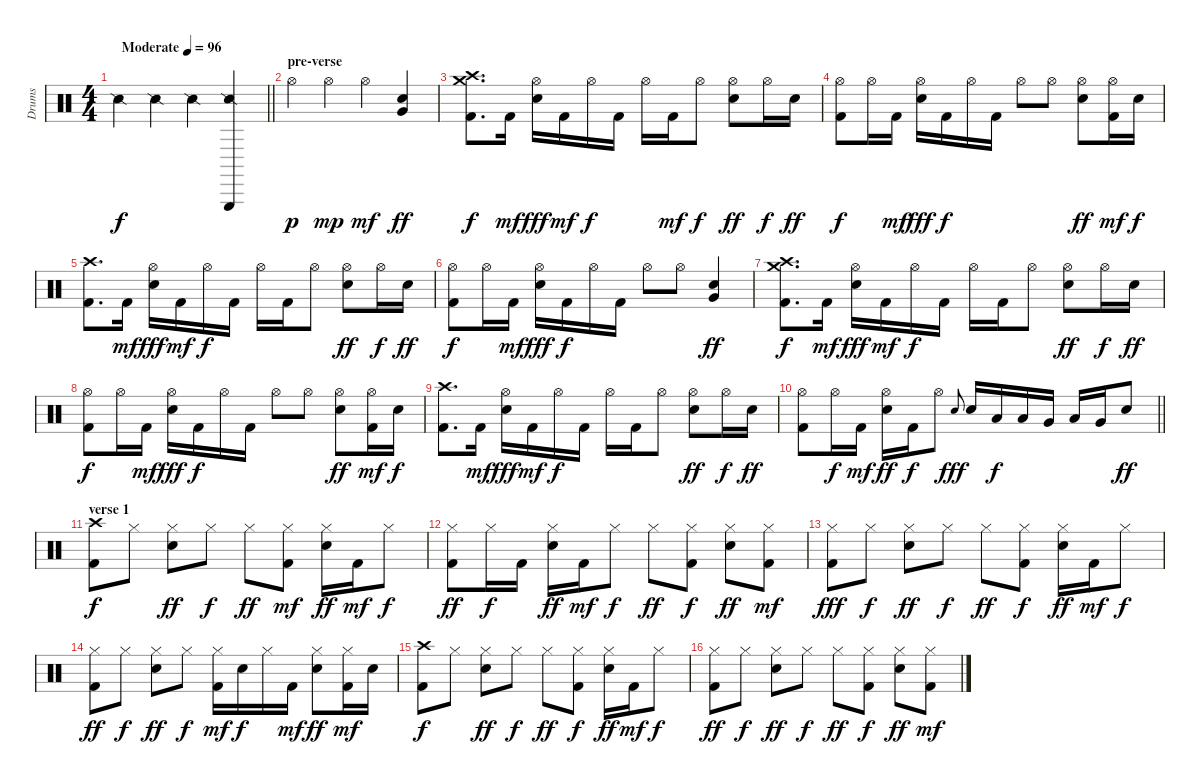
\track ("Drums" "Drums") {instrument percussion}
\staff {score}
\articulation defaults
\ts (4 4)
\tempo (96 "Moderate")
\clef neutral
\barLineRight lightlight
\ks c "Snare (side stick) 2".4{dy f} "Snare (side stick) 2".4 "Snare (side stick) 2".4
("Triangle (hit)" "Snare (side stick) 2").4 |
\section ("" "pre-verse")
"Hi-Hat (open)".4{dy p} "Hi-Hat (open)".4{dy mp} "Hi-Hat (open)".4{dy mf} ("Very Low Tom (hit)" "Electric Snare (hit)").4{dy ff} |
("Crash medium (hit)" "Crash high (hit)" "Kick (hit) 2").8{d dy f} "Kick (hit) 2".16{dy mf} ("Hi-Hat (open)" "Electric Snare (hit)").16{dy fff} "Kick (hit) 2".16{dy mf} "Hi-Hat (open)".16{dy f} "Kick (hit) 2".16 "Hi-Hat (open)".16 "Kick (hit) 2".16{dy mf} "Hi-Hat (open)".8{dy f} ("Hi-Hat (open)" "Electric Snare (hit)").8{dy ff} "Hi-Hat (open)".16{dy f} "Electric Snare (hit)".16{dy ff} |
("Hi-Hat (open)" "Kick (hit) 2").8{dy f} "Hi-Hat (open)".16 "Kick (hit) 2".16{dy mf} ("Hi-Hat (open)" "Electric Snare (hit)").16{dy fff} "Kick (hit) 2".16{dy f} "Hi-Hat (open)".16 "Kick (hit) 2".16 "Hi-Hat (open)".8 "Hi-Hat (open)".8 ("Hi-Hat (open)" "Electric Snare (hit)").8{dy ff} ("Hi-Hat (open)" "Kick (hit) 2").16{dy mf} "Electric Snare (hit)".16{dy f} |
("Crash high (hit)" "Kick (hit) 2").8{d} "Kick (hit) 2".16{dy mf} ("Hi-Hat (open)" "Electric Snare (hit)").16{dy fff} "Kick (hit) 2".16{dy mf} "Hi-Hat (open)".16{dy f} "Kick (hit) 2".16 "Hi-Hat (open)".16 "Kick (hit) 2".16 "Hi-Hat (open)".8 ("Hi-Hat (open)" "Electric Snare (hit)").8{dy ff} "Hi-Hat (open)".16{dy f} "Electric Snare (hit)".16{dy ff} |
("Hi-Hat (open)" "Kick (hit) 2").8{dy f} "Hi-Hat (open)".16 "Kick (hit) 2".16{dy mf} ("Hi-Hat (open)" "Electric Snare (hit)").16{dy fff} "Kick (hit) 2".16{dy f} "Hi-Hat (open)".16 "Kick (hit) 2".16 "Hi-Hat (open)".8 "Hi-Hat (open)".8 ("Very Low Tom (hit)" "Electric Snare (hit)").4{dy ff} |
("Crash medium (hit)" "Crash high (hit)" "Kick (hit) 2").8{d dy f} "Kick (hit) 2".16{dy mf} ("Hi-Hat (open)" "Electric Snare (hit)").16{dy fff} "Kick (hit) 2".16{dy mf} "Hi-Hat (open)".16{dy f} "Kick (hit) 2".16 "Hi-Hat (open)".16 "Kick (hit) 2".16 "Hi-Hat (open)".8 ("Hi-Hat (open)" "Electric Snare (hit)").8{dy ff} "Hi-Hat (open)".16{dy f} "Electric Snare (hit)".16{dy ff} |
("Hi-Hat (open)" "Kick (hit) 2").8{dy f} "Hi-Hat (open)".16 "Kick (hit) 2".16{dy mf} ("Hi-Hat (open)" "Electric Snare (hit)").16{dy fff} "Kick (hit) 2".16{dy f} "Hi-Hat (open)".16 "Kick (hit) 2".16 "Hi-Hat (open)".8 "Hi-Hat (open)".8 ("Hi-Hat (open)" "Electric Snare (hit)").8{dy ff} ("Hi-Hat (open)" "Kick (hit) 2").16{dy mf} "Electric Snare (hit)".16{dy f} |
("Crash high (hit)" "Kick (hit) 2").8{d} "Kick (hit) 2".16{dy mf} ("Hi-Hat (open)" "Electric Snare (hit)").16{dy fff} "Kick (hit) 2".16{dy mf} "Hi-Hat (open)".16{dy f} "Kick (hit) 2".16 "Hi-Hat (open)".16 "Kick (hit) 2".16 "Hi-Hat (open)".8 ("Hi-Hat (open)" "Electric Snare (hit)").8{dy ff} "Hi-Hat (open)".16{dy f} "Electric Snare (hit)".16{dy ff} |
\barLineRight lightlight
("Hi-Hat (open)" "Kick (hit) 2").8 "Hi-Hat (open)".16{dy f} "Kick (hit) 2".16{dy mf} ("Hi-Hat (open)" "Electric Snare (hit)").16{dy ff} "Kick (hit) 2".16{dy f} "Hi-Hat (open)".8 "Electric Snare (hit)".8{gr onbeat dy fff} "Electric Snare (hit)".16 "Low Tom (hit)".16{dy f} "Low Tom (hit)".16 "Very Low Tom (hit)".16 "Low Tom (hit)".16 "Very Low Tom (hit)".16 "Electric Snare (hit)".8{dy ff} |
\section ("" "verse 1")
("Crash high (hit)" "Kick (hit) 2").8{dy f} "Hi-Hat (closed)".8 ("Hi-Hat (closed)" "Electric Snare (hit)").8{dy ff} "Hi-Hat (closed)".8{dy f} "Hi-Hat (closed)".8{dy ff} ("Hi-Hat (closed)" "Kick (hit) 2").8{dy mf} ("Hi-Hat (closed)" "Electric Snare (hit)").16{dy ff} "Kick (hit) 2".16{dy mf} "Hi-Hat (closed)".8{dy f} |
("Hi-Hat (closed)" "Kick (hit) 2").8{dy ff} "Hi-Hat (closed)".16{dy f} "Kick (hit) 2".16 ("Hi-Hat (closed)" "Electric Snare (hit)").16{dy ff} "Kick (hit) 2".16{dy mf} "Hi-Hat (closed)".8{dy f} "Hi-Hat (closed)".8{dy ff} ("Hi-Hat (closed)" "Kick (hit) 2").8{dy f} ("Hi-Hat (closed)" "Electric Snare (hit)").8{dy ff} ("Hi-Hat (closed)" "Kick (hit) 2").8{dy mf} |
("Hi-Hat (closed)" "Kick (hit) 2").8{dy fff} "Hi-Hat (closed)".8{dy f} ("Hi-Hat (closed)" "Electric Snare (hit)").8{dy ff} "Hi-Hat (closed)".8{dy f} "Hi-Hat (closed)".8{dy ff} ("Hi-Hat (closed)" "Kick (hit) 2").8{dy f} ("Hi-Hat (closed)" "Electric Snare (hit)").16{dy ff} "Kick (hit) 2".16{dy mf} "Hi-Hat (closed)".8{dy f} |
("Hi-Hat (closed)" "Kick (hit) 2").8{dy ff} "Hi-Hat (closed)".8{dy f} ("Hi-Hat (closed)" "Electric Snare (hit)").8{dy ff} "Hi-Hat (closed)".8{dy f} ("Hi-Hat (closed)" "Kick (hit) 2").16{dy mf} "Electric Snare (hit)".16{dy f} "Hi-Hat (closed)".16 "Kick (hit) 2".16{dy mf} ("Hi-Hat (closed)" "Electric Snare (hit)").8{dy ff} ("Hi-Hat (closed)" "Kick (hit) 2").16{dy mf} "Electric Snare (hit)".16 |
("Crash high (hit)" "Kick (hit) 2").8{dy f} "Hi-Hat (closed)".8 ("Hi-Hat (closed)" "Electric Snare (hit)").8{dy ff} "Hi-Hat (closed)".8{dy f} "Hi-Hat (closed)".8{dy ff} ("Hi-Hat (closed)" "Kick (hit) 2").8{dy f} ("Hi-Hat (closed)" "Electric Snare (hit)").16{dy ff} "Kick (hit) 2".16{dy mf} "Hi-Hat (closed)".8{dy f} |
("Hi-Hat (closed)" "Kick (hit) 2").8{dy ff} "Hi-Hat (closed)".8{dy f} ("Hi-Hat (closed)" "Electric Snare (hit)").8{dy ff} "Hi-Hat (closed)".8{dy f} "Hi-Hat (closed)".8{dy ff} ("Hi-Hat (closed)" "Kick (hit) 2").8{dy f} ("Hi-Hat (closed)" "Electric Snare (hit)").8{dy ff} ("Hi-Hat (closed)" "Kick (hit) 2").8{dy mf}
